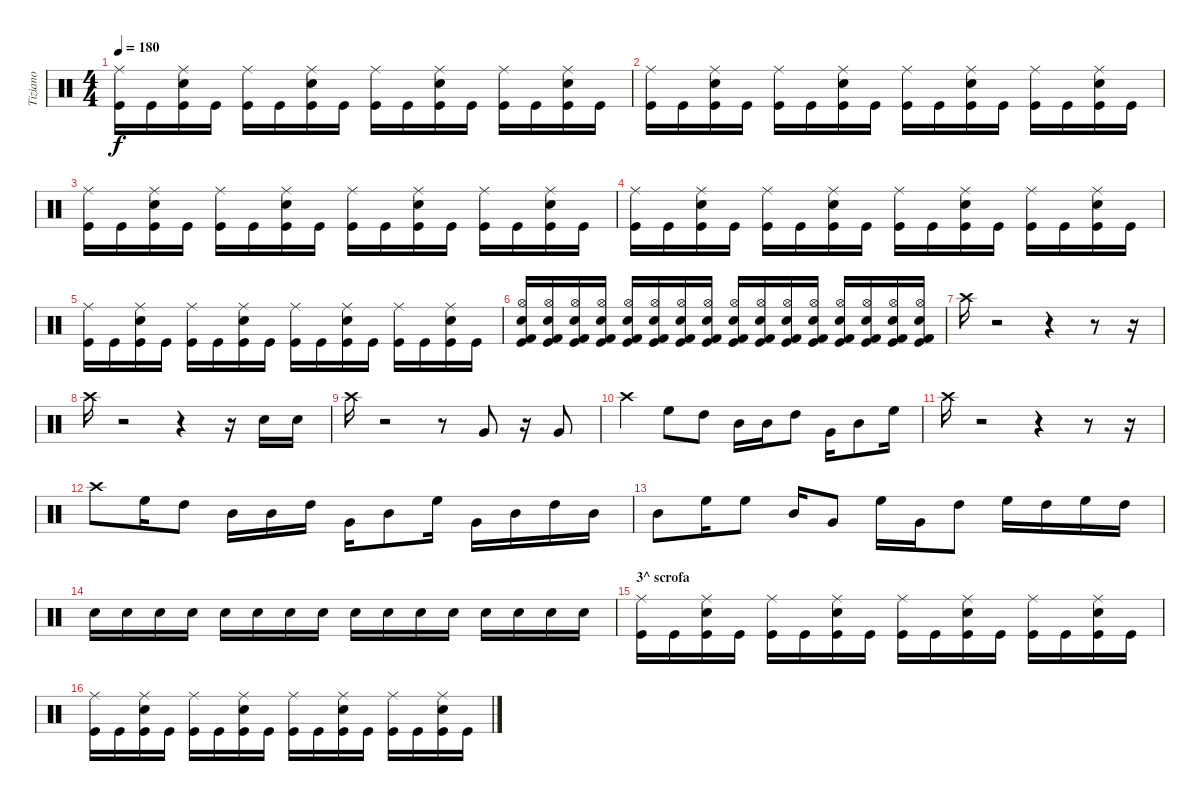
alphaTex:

\track ("Tiziano" "Tiziano") {instrument percussion}
\staff {score}
\articulation defaults
\ts (4 4)
\tempo 180
\clef neutral
\ks c
("Kick (hit)" "Ride (middle)").16{dy f} "Kick (hit)".16 ("Kick (hit)" "Snare (hit) 2" "Ride (middle)").16 "Kick (hit)".16 ("Kick (hit)" "Ride (middle)").16 "Kick (hit)".16 ("Kick (hit)" "Snare (hit) 2" "Ride (middle)").16 "Kick (hit)".16 ("Kick (hit)" "Ride (middle)").16 "Kick (hit)".16 ("Kick (hit)" "Snare (hit) 2" "Ride (middle)").16 "Kick (hit)".16 ("Kick (hit)" "Ride (middle)").16 "Kick (hit)".16 ("Kick (hit)" "Snare (hit) 2" "Ride (middle)").16 "Kick (hit)".16 |
("Kick (hit)" "Ride (middle)").16 "Kick (hit)".16 ("Kick (hit)" "Snare (hit) 2" "Ride (middle)").16 "Kick (hit)".16 ("Kick (hit)" "Ride (middle)").16 "Kick (hit)".16 ("Kick (hit)" "Snare (hit) 2" "Ride (middle)").16 "Kick (hit)".16 ("Kick (hit)" "Ride (middle)").16 "Kick (hit)".16 ("Kick (hit)" "Snare (hit) 2" "Ride (middle)").16 "Kick (hit)".16 ("Kick (hit)" "Ride (middle)").16 "Kick (hit)".16 ("Kick (hit)" "Snare (hit) 2" "Ride (middle)").16 "Kick (hit)".16 |
("Kick (hit)" "Ride (middle)").16 "Kick (hit)".16 ("Kick (hit)" "Snare (hit) 2" "Ride (middle)").16 "Kick (hit)".16 ("Kick (hit)" "Ride (middle)").16 "Kick (hit)".16 ("Kick (hit)" "Snare (hit) 2" "Ride (middle)").16 "Kick (hit)".16 ("Kick (hit)" "Ride (middle)").16 "Kick (hit)".16 ("Kick (hit)" "Snare (hit) 2" "Ride (middle)").16 "Kick (hit)".16 ("Kick (hit)" "Ride (middle)").16 "Kick (hit)".16 ("Kick (hit)" "Snare (hit) 2" "Ride (middle)").16 "Kick (hit)".16 |
("Kick (hit)" "Ride (middle)").16 "Kick (hit)".16 ("Kick (hit)" "Snare (hit) 2" "Ride (middle)").16 "Kick (hit)".16 ("Kick (hit)" "Ride (middle)").16 "Kick (hit)".16 ("Kick (hit)" "Snare (hit) 2" "Ride (middle)").16 "Kick (hit)".16 ("Kick (hit)" "Ride (middle)").16 "Kick (hit)".16 ("Kick (hit)" "Snare (hit) 2" "Ride (middle)").16 "Kick (hit)".16 ("Kick (hit)" "Ride (middle)").16 "Kick (hit)".16 ("Kick (hit)" "Snare (hit) 2" "Ride (middle)").16 "Kick (hit)".16 |
("Kick (hit)" "Ride (middle)").16 "Kick (hit)".16 ("Kick (hit)" "Snare (hit) 2" "Ride (middle)").16 "Kick (hit)".16 ("Kick (hit)" "Ride (middle)").16 "Kick (hit)".16 ("Kick (hit)" "Snare (hit) 2" "Ride (middle)").16 "Kick (hit)".16 ("Kick (hit)" "Ride (middle)").16 "Kick (hit)".16 ("Kick (hit)" "Snare (hit) 2" "Ride (middle)").16 "Kick (hit)".16 ("Kick (hit)" "Ride (middle)").16 "Kick (hit)".16 ("Kick (hit)" "Snare (hit) 2" "Ride (middle)").16 "Kick (hit)".16 |
("Hi-Hat (open)" "Kick (hit)" "Kick (hit) 2" "Snare (hit) 2").16 ("Hi-Hat (open)" "Kick (hit)" "Kick (hit) 2" "Snare (hit) 2").16 ("Hi-Hat (open)" "Kick (hit)" "Kick (hit) 2" "Snare (hit) 2").16 ("Hi-Hat (open)" "Kick (hit)" "Kick (hit) 2" "Snare (hit) 2").16 ("Hi-Hat (open)" "Kick (hit)" "Kick (hit) 2" "Snare (hit) 2").16 ("Hi-Hat (open)" "Kick (hit)" "Kick (hit) 2" "Snare (hit) 2").16 ("Hi-Hat (open)" "Kick (hit)" "Kick (hit) 2" "Snare (hit) 2").16 ("Hi-Hat (open)" "Kick (hit)" "Kick (hit) 2" "Snare (hit) 2").16 ("Hi-Hat (open)" "Kick (hit)" "Kick (hit) 2" "Snare (hit) 2").16 ("Hi-Hat (open)" "Kick (hit)" "Kick (hit) 2" "Snare (hit) 2").16 ("Hi-Hat (open)" "Kick (hit)" "Kick (hit) 2" "Snare (hit) 2").16 ("Hi-Hat (open)" "Kick (hit)" "Kick (hit) 2" "Snare (hit) 2").16 ("Hi-Hat (open)" "Kick (hit)" "Kick (hit) 2" "Snare (hit) 2").16 ("Hi-Hat (open)" "Kick (hit)" "Kick (hit) 2" "Snare (hit) 2").16 ("Hi-Hat (open)" "Kick (hit)" "Kick (hit) 2" "Snare (hit) 2").16 ("Hi-Hat (open)" "Kick (hit)" "Kick (hit) 2" "Snare (hit) 2").16 |
"Crash high (hit)".16 r.2 r.4 r.8 r.16 |
"Crash high (hit)".16 r.2 r.4 r.16 "Snare (hit) 2".16 "Snare (hit) 2".16 |
"Crash high (hit)".16 r.2 r.8 "Very Low Tom (hit)".8 r.16 "Very Low Tom (hit)".8 |
"Crash high (hit)".4 "High Floor Tom (hit)".8 "High Tom (hit)".8 "Mid Tom (hit)".16 "Mid Tom (hit)".16 "High Tom (hit)".8 "Very Low Tom (hit)".16 "Mid Tom (hit)".8 "High Floor Tom (hit)".16 |
"Crash high (hit)".16 r.2 r.4 r.8 r.16 |
"Crash high (hit)".8 "High Floor Tom (hit)".16 "High Tom (hit)".8 "Mid Tom (hit)".16 "Mid Tom (hit)".16 "High Tom (hit)".16 "Very Low Tom (hit)".16 "Mid Tom (hit)".8 "High Floor Tom (hit)".16 "Very Low Tom (hit)".16 "Mid Tom (hit)".16 "High Tom (hit)".16 "Mid Tom (hit)".16 |
"Mid Tom (hit)".8 "High Floor Tom (hit)".16 "High Floor Tom (hit)".8 "Mid Tom (hit)".16 "Very Low Tom (hit)".8 "High Floor Tom (hit)".16 "Very Low Tom (hit)".16 "High Tom (hit)".8 "High Floor Tom (hit)".16 "High Tom (hit)".16 "High Floor Tom (hit)".16 "High Tom (hit)".16 |
"Snare (hit) 2".16 "Snare (hit) 2".16 "Snare (hit) 2".16 "Snare (hit) 2".16 "Snare (hit) 2".16 "Snare (hit) 2".16 "Snare (hit) 2".16 "Snare (hit) 2".16 "Snare (hit) 2".16 "Snare (hit) 2".16 "Snare (hit) 2".16 "Snare (hit) 2".16 "Snare (hit) 2".16 "Snare (hit) 2".16 "Snare (hit) 2".16 "Snare (hit) 2".16 |
\section ("" "3^ scrofa")
("Kick (hit)" "Ride (middle)").16 "Kick (hit)".16 ("Kick (hit)" "Snare (hit) 2" "Ride (middle)").16 "Kick (hit)".16 ("Kick (hit)" "Ride (middle)").16 "Kick (hit)".16 ("Kick (hit)" "Snare (hit) 2" "Ride (middle)").16 "Kick (hit)".16 ("Kick (hit)" "Ride (middle)").16 "Kick (hit)".16 ("Kick (hit)" "Snare (hit) 2" "Ride (middle)").16 "Kick (hit)".16 ("Kick (hit)" "Ride (middle)").16 "Kick (hit)".16 ("Kick (hit)" "Snare (hit) 2" "Ride (middle)").16 "Kick (hit)".16 |
("Kick (hit)" "Ride (middle)").16 "Kick (hit)".16 ("Kick (hit)" "Snare (hit) 2" "Ride (middle)").16 "Kick (hit)".16 ("Kick (hit)" "Ride (middle)").16 "Kick (hit)".16 ("Kick (hit)" "Snare (hit) 2" "Ride (middle)").16 "Kick (hit)".16 ("Kick (hit)" "Ride (middle)").16 "Kick (hit)".16 ("Kick (hit)" "Snare (hit) 2" "Ride (middle)").16 "Kick (hit)".16 ("Kick (hit)" "Ride (middle)").16 "Kick (hit)".16 ("Kick (hit)" "Snare (hit) 2" "Ride (middle)").16 "Kick (hit)".16
